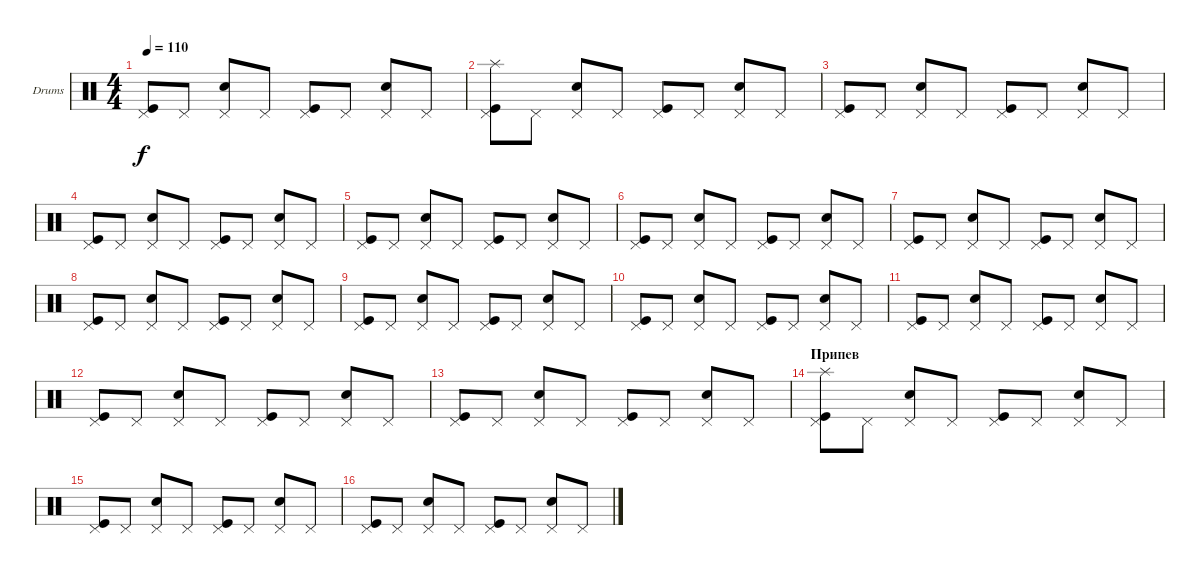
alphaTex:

\defaultSystemsLayout 4
\bracketExtendMode groupsimilarinstruments
\firstSystemTrackNameOrientation horizontal
\otherSystemsTrackNameOrientation horizontal
\track ("Drumkit" "Drums") {instrument percussion}
\staff {score}
\articulation defaults
\ts (4 4)
\tempo 110
\clef neutral
\ks c
("Pedal Hi-Hat (hit)" "Kick (hit)").8{dy f} "Pedal Hi-Hat (hit)".8 ("Snare (hit) 2" "Pedal Hi-Hat (hit)").8 "Pedal Hi-Hat (hit)".8 ("Pedal Hi-Hat (hit)" "Kick (hit)").8 "Pedal Hi-Hat (hit)".8 ("Snare (hit) 2" "Pedal Hi-Hat (hit)").8 "Pedal Hi-Hat (hit)".8 |
("Pedal Hi-Hat (hit)" "Kick (hit)" "Splash (hit)").8 "Pedal Hi-Hat (hit)".8 ("Snare (hit) 2" "Pedal Hi-Hat (hit)").8 "Pedal Hi-Hat (hit)".8 ("Pedal Hi-Hat (hit)" "Kick (hit)").8 "Pedal Hi-Hat (hit)".8 ("Snare (hit) 2" "Pedal Hi-Hat (hit)").8 "Pedal Hi-Hat (hit)".8 |
("Pedal Hi-Hat (hit)" "Kick (hit)").8 "Pedal Hi-Hat (hit)".8 ("Snare (hit) 2" "Pedal Hi-Hat (hit)").8 "Pedal Hi-Hat (hit)".8 ("Pedal Hi-Hat (hit)" "Kick (hit)").8 "Pedal Hi-Hat (hit)".8 ("Snare (hit) 2" "Pedal Hi-Hat (hit)").8 "Pedal Hi-Hat (hit)".8 |
("Pedal Hi-Hat (hit)" "Kick (hit)").8 "Pedal Hi-Hat (hit)".8 ("Snare (hit) 2" "Pedal Hi-Hat (hit)").8 "Pedal Hi-Hat (hit)".8 ("Pedal Hi-Hat (hit)" "Kick (hit)").8 "Pedal Hi-Hat (hit)".8 ("Snare (hit) 2" "Pedal Hi-Hat (hit)").8 "Pedal Hi-Hat (hit)".8 |
("Pedal Hi-Hat (hit)" "Kick (hit)").8 "Pedal Hi-Hat (hit)".8 ("Snare (hit) 2" "Pedal Hi-Hat (hit)").8 "Pedal Hi-Hat (hit)".8 ("Pedal Hi-Hat (hit)" "Kick (hit)").8 "Pedal Hi-Hat (hit)".8 ("Snare (hit) 2" "Pedal Hi-Hat (hit)").8 "Pedal Hi-Hat (hit)".8 |
("Pedal Hi-Hat (hit)" "Kick (hit)").8 "Pedal Hi-Hat (hit)".8 ("Snare (hit) 2" "Pedal Hi-Hat (hit)").8 "Pedal Hi-Hat (hit)".8 ("Pedal Hi-Hat (hit)" "Kick (hit)").8 "Pedal Hi-Hat (hit)".8 ("Snare (hit) 2" "Pedal Hi-Hat (hit)").8 "Pedal Hi-Hat (hit)".8 |
("Pedal Hi-Hat (hit)" "Kick (hit)").8 "Pedal Hi-Hat (hit)".8 ("Snare (hit) 2" "Pedal Hi-Hat (hit)").8 "Pedal Hi-Hat (hit)".8 ("Pedal Hi-Hat (hit)" "Kick (hit)").8 "Pedal Hi-Hat (hit)".8 ("Snare (hit) 2" "Pedal Hi-Hat (hit)").8 "Pedal Hi-Hat (hit)".8 |
("Pedal Hi-Hat (hit)" "Kick (hit)").8 "Pedal Hi-Hat (hit)".8 ("Snare (hit) 2" "Pedal Hi-Hat (hit)").8 "Pedal Hi-Hat (hit)".8 ("Pedal Hi-Hat (hit)" "Kick (hit)").8 "Pedal Hi-Hat (hit)".8 ("Snare (hit) 2" "Pedal Hi-Hat (hit)").8 "Pedal Hi-Hat (hit)".8 |
("Pedal Hi-Hat (hit)" "Kick (hit)").8 "Pedal Hi-Hat (hit)".8 ("Snare (hit) 2" "Pedal Hi-Hat (hit)").8 "Pedal Hi-Hat (hit)".8 ("Pedal Hi-Hat (hit)" "Kick (hit)").8 "Pedal Hi-Hat (hit)".8 ("Snare (hit) 2" "Pedal Hi-Hat (hit)").8 "Pedal Hi-Hat (hit)".8 |
("Pedal Hi-Hat (hit)" "Kick (hit)").8 "Pedal Hi-Hat (hit)".8 ("Snare (hit) 2" "Pedal Hi-Hat (hit)").8 "Pedal Hi-Hat (hit)".8 ("Pedal Hi-Hat (hit)" "Kick (hit)").8 "Pedal Hi-Hat (hit)".8 ("Snare (hit) 2" "Pedal Hi-Hat (hit)").8 "Pedal Hi-Hat (hit)".8 |
("Pedal Hi-Hat (hit)" "Kick (hit)").8 "Pedal Hi-Hat (hit)".8 ("Snare (hit) 2" "Pedal Hi-Hat (hit)").8 "Pedal Hi-Hat (hit)".8 ("Pedal Hi-Hat (hit)" "Kick (hit)").8 "Pedal Hi-Hat (hit)".8 ("Snare (hit) 2" "Pedal Hi-Hat (hit)").8 "Pedal Hi-Hat (hit)".8 |
("Pedal Hi-Hat (hit)" "Kick (hit)").8 "Pedal Hi-Hat (hit)".8 ("Snare (hit) 2" "Pedal Hi-Hat (hit)").8 "Pedal Hi-Hat (hit)".8 ("Pedal Hi-Hat (hit)" "Kick (hit)").8 "Pedal Hi-Hat (hit)".8 ("Snare (hit) 2" "Pedal Hi-Hat (hit)").8 "Pedal Hi-Hat (hit)".8 |
("Pedal Hi-Hat (hit)" "Kick (hit)").8 "Pedal Hi-Hat (hit)".8 ("Snare (hit) 2" "Pedal Hi-Hat (hit)").8 "Pedal Hi-Hat (hit)".8 ("Pedal Hi-Hat (hit)" "Kick (hit)").8 "Pedal Hi-Hat (hit)".8 ("Snare (hit) 2" "Pedal Hi-Hat (hit)").8 "Pedal Hi-Hat (hit)".8 |
\section ("" "Припев")
("Pedal Hi-Hat (hit)" "Kick (hit)" "Splash (hit)").8 "Pedal Hi-Hat (hit)".8 ("Snare (hit) 2" "Pedal Hi-Hat (hit)").8 "Pedal Hi-Hat (hit)".8 ("Pedal Hi-Hat (hit)" "Kick (hit)").8 "Pedal Hi-Hat (hit)".8 ("Snare (hit) 2" "Pedal Hi-Hat (hit)").8 "Pedal Hi-Hat (hit)".8 |
("Pedal Hi-Hat (hit)" "Kick (hit)").8 "Pedal Hi-Hat (hit)".8 ("Snare (hit) 2" "Pedal Hi-Hat (hit)").8 "Pedal Hi-Hat (hit)".8 ("Pedal Hi-Hat (hit)" "Kick (hit)").8 "Pedal Hi-Hat (hit)".8 ("Snare (hit) 2" "Pedal Hi-Hat (hit)").8 "Pedal Hi-Hat (hit)".8 |
("Pedal Hi-Hat (hit)" "Kick (hit)").8 "Pedal Hi-Hat (hit)".8 ("Snare (hit) 2" "Pedal Hi-Hat (hit)").8 "Pedal Hi-Hat (hit)".8 ("Pedal Hi-Hat (hit)" "Kick (hit)").8 "Pedal Hi-Hat (hit)".8 ("Snare (hit) 2" "Pedal Hi-Hat (hit)").8 "Pedal Hi-Hat (hit)".8
